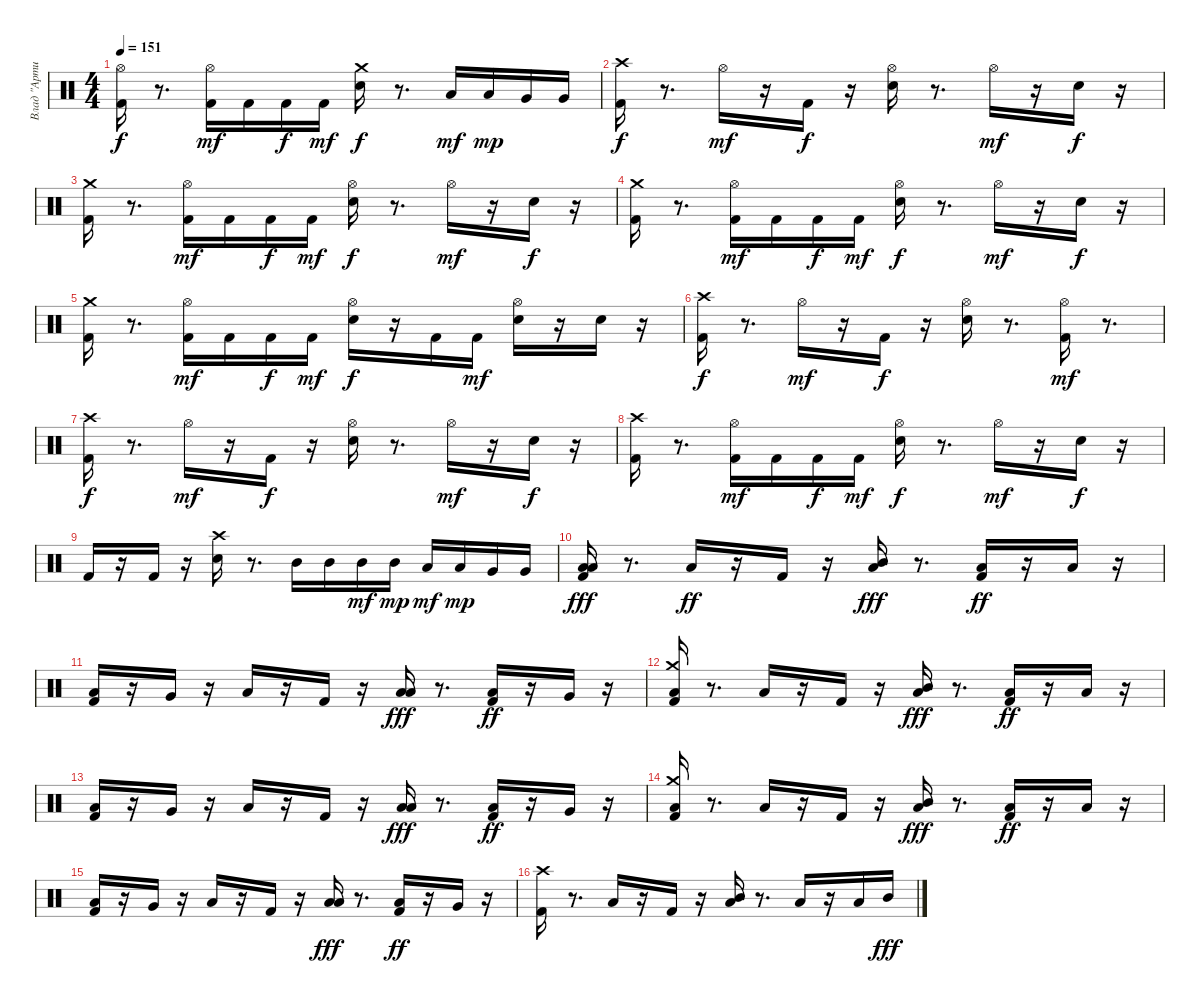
\track ("Влад \"Артист\"" "Влад \"Арти") {instrument percussion}
\staff {score}
\articulation defaults
\ts (4 4)
\tempo 151
\clef neutral
\ks c
("Hi-Hat (open)" "Kick (hit) 2").16{dy f} r.8{d} ("Kick (hit) 2" "Hi-Hat (open)").16{dy mf} "Kick (hit) 2".16 "Kick (hit) 2".16{dy f} "Kick (hit) 2".16{dy mf} ("Snare (hit) 2" "Crash medium (hit)").16{dy f} r.8{d} "Low Tom (hit)".16{dy mf} "Low Tom (hit)".16{dy mp} "Very Low Tom (hit)".16 "Very Low Tom (hit)".16 |
("Crash high (hit)" "Kick (hit) 2").16{dy f} r.8{d} "Hi-Hat (open)".16{dy mf} r.16 "Kick (hit) 2".16{dy f} r.16 ("Snare (hit) 2" "Hi-Hat (open)").16 r.8{d} "Hi-Hat (open)".16{dy mf} r.16 "Snare (hit) 2".16{dy f} r.16 |
("Kick (hit) 2" "Crash medium (hit)").16 r.8{d} ("Hi-Hat (open)" "Kick (hit) 2").16{dy mf} "Kick (hit) 2".16 "Kick (hit) 2".16{dy f} "Kick (hit) 2".16{dy mf} ("Hi-Hat (open)" "Snare (hit) 2").16{dy f} r.8{d} "Hi-Hat (open)".16{dy mf} r.16 "Snare (hit) 2".16{dy f} r.16 |
("Crash medium (hit)" "Kick (hit) 2").16 r.8{d} ("Hi-Hat (open)" "Kick (hit) 2").16{dy mf} "Kick (hit) 2".16 "Kick (hit) 2".16{dy f} "Kick (hit) 2".16{dy mf} ("Hi-Hat (open)" "Snare (hit) 2").16{dy f} r.8{d} "Hi-Hat (open)".16{dy mf} r.16 "Snare (hit) 2".16{dy f} r.16 |
("Kick (hit) 2" "Crash medium (hit)").16 r.8{d} ("Hi-Hat (open)" "Kick (hit) 2").16{dy mf} "Kick (hit) 2".16 "Kick (hit) 2".16{dy f} "Kick (hit) 2".16{dy mf} ("Hi-Hat (open)" "Snare (hit) 2").16{dy f} r.16 "Kick (hit) 2".16 "Kick (hit) 2".16{dy mf} ("Hi-Hat (open)" "Snare (hit) 2").16 r.16 "Snare (hit) 2".16 r.16 |
("Kick (hit) 2" "Crash high (hit)").16{dy f} r.8{d} "Hi-Hat (open)".16{dy mf} r.16 "Kick (hit) 2".16{dy f} r.16 ("Hi-Hat (open)" "Snare (hit) 2").16 r.8{d} ("Hi-Hat (open)" "Kick (hit) 2").16{dy mf} r.8{d} |
("Crash high (hit)" "Kick (hit) 2").16{dy f} r.8{d} "Hi-Hat (open)".16{dy mf} r.16 "Kick (hit) 2".16{dy f} r.16 ("Snare (hit) 2" "Hi-Hat (open)").16 r.8{d} "Hi-Hat (open)".16{dy mf} r.16 "Snare (hit) 2".16{dy f} r.16 |
("Kick (hit) 2" "Crash high (hit)").16 r.8{d} ("Hi-Hat (open)" "Kick (hit) 2").16{dy mf} "Kick (hit) 2".16 "Kick (hit) 2".16{dy f} "Kick (hit) 2".16{dy mf} ("Hi-Hat (open)" "Snare (hit) 2").16{dy f} r.8{d} "Hi-Hat (open)".16{dy mf} r.16 "Snare (hit) 2".16{dy f} r.16 |
"Kick (hit) 2".16 r.16 "Kick (hit) 2".16 r.16 ("Snare (hit) 2" "Crash high (hit)").16 r.8{d} "Mid Tom (hit)".16 "Mid Tom (hit)".16 "Mid Tom (hit)".16{dy mf} "Mid Tom (hit)".16{dy mp} "Low Tom (hit)".16{dy mf} "Low Tom (hit)".16{dy mp} "Very Low Tom (hit)".16 "Very Low Tom (hit)".16 |
("Low Tom (hit)" "Kick (hit) 2" "Low Floor Tom (hit)").16{dy fff} r.8{d} "Low Floor Tom (hit)".16{dy ff} r.16 "Kick (hit) 2".16 r.16 ("Mid Tom (hit)" "Low Floor Tom (hit)").16{dy fff} r.8{d} ("Low Floor Tom (hit)" "Kick (hit) 2").16{dy ff} r.16 "Low Tom (hit)".16 r.16 |
("Kick (hit) 2" "Low Floor Tom (hit)").16 r.16 "Very Low Tom (hit)".16 r.16 "Low Floor Tom (hit)".16 r.16 "Kick (hit) 2".16 r.16 ("Low Tom (hit)" "Low Floor Tom (hit)").16{dy fff} r.8{d} ("Kick (hit) 2" "Low Floor Tom (hit)").16{dy ff} r.16 "Very Low Tom (hit)".16 r.16 |
("Crash medium (hit)" "Kick (hit) 2" "Low Floor Tom (hit)").16 r.8{d} "Low Floor Tom (hit)".16 r.16 "Kick (hit) 2".16 r.16 ("Mid Tom (hit)" "Low Floor Tom (hit)").16{dy fff} r.8{d} ("Low Floor Tom (hit)" "Kick (hit) 2").16{dy ff} r.16 "Low Tom (hit)".16 r.16 |
("Kick (hit) 2" "Low Floor Tom (hit)").16 r.16 "Very Low Tom (hit)".16 r.16 "Low Floor Tom (hit)".16 r.16 "Kick (hit) 2".16 r.16 ("Low Tom (hit)" "Low Floor Tom (hit)").16{dy fff} r.8{d} ("Kick (hit) 2" "Low Floor Tom (hit)").16{dy ff} r.16 "Very Low Tom (hit)".16 r.16 |
("Crash medium (hit)" "Kick (hit) 2" "Low Floor Tom (hit)").16 r.8{d} "Low Floor Tom (hit)".16 r.16 "Kick (hit) 2".16 r.16 ("Mid Tom (hit)" "Low Floor Tom (hit)").16{dy fff} r.8{d} ("Low Floor Tom (hit)" "Kick (hit) 2").16{dy ff} r.16 "Low Tom (hit)".16 r.16 |
("Kick (hit) 2" "Low Floor Tom (hit)").16 r.16 "Very Low Tom (hit)".16 r.16 "Low Floor Tom (hit)".16 r.16 "Kick (hit) 2".16 r.16 ("Low Tom (hit)" "Low Floor Tom (hit)").16{dy fff} r.8{d} ("Kick (hit) 2" "Low Floor Tom (hit)").16{dy ff} r.16 "Very Low Tom (hit)".16 r.16 |
("Crash high (hit)" "Kick (hit) 2").16 r.8{d} "Low Floor Tom (hit)".16 r.16 "Kick (hit) 2".16 r.16 ("Mid Tom (hit)" "Low Floor Tom (hit)").16 r.8{d} "Low Floor Tom (hit)".16 r.16 "Low Tom (hit)".16 "Mid Tom (hit)".16{dy fff}
